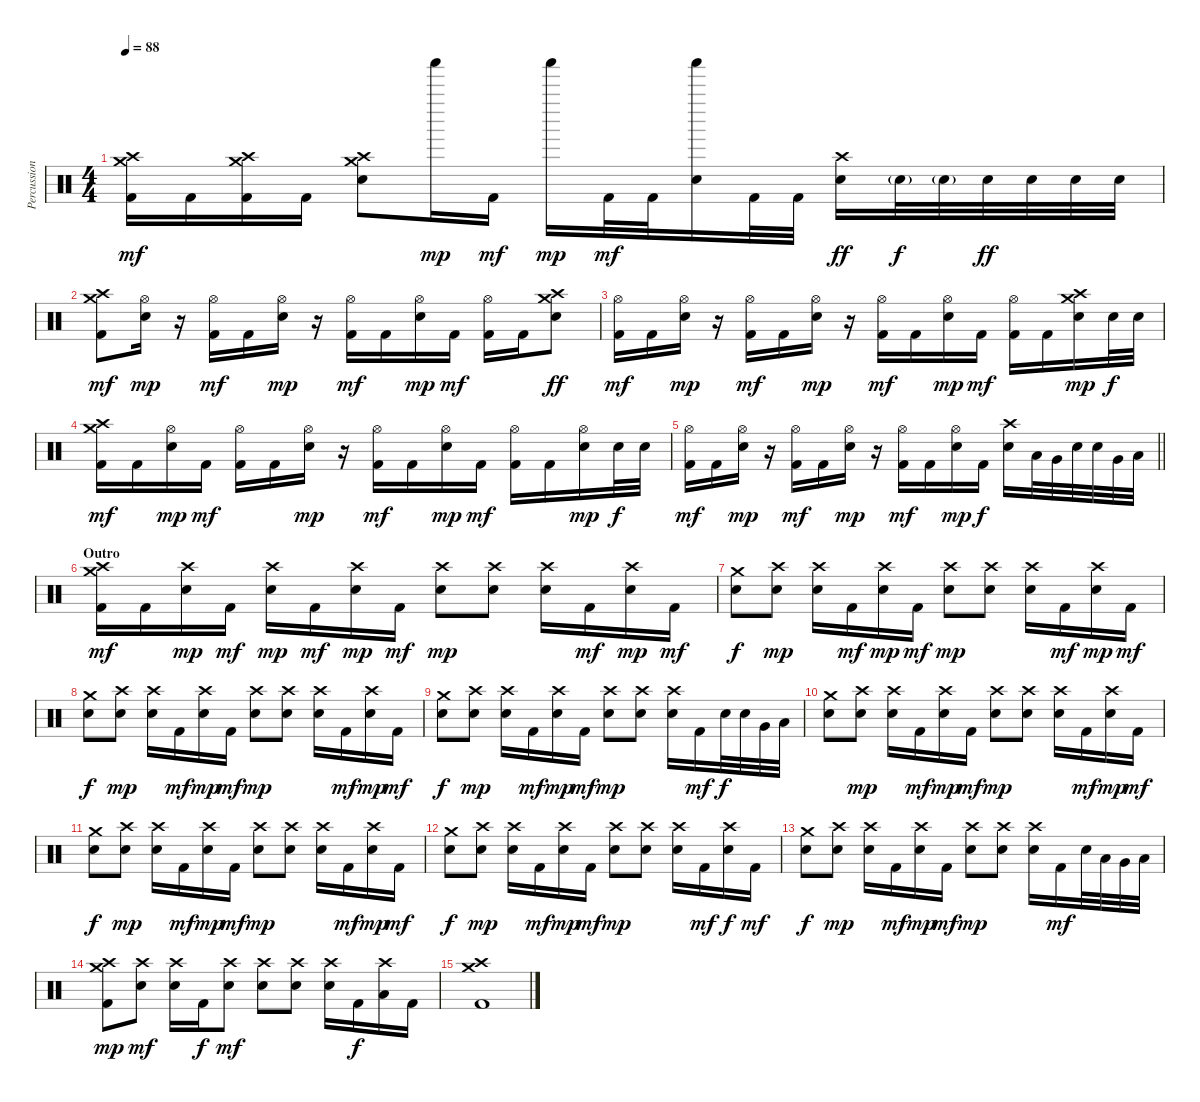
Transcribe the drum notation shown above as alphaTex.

\track ("Percussion" "Percussion") {instrument percussion}
\staff {score}
\articulation defaults
\ts (4 4)
\tempo 88
\clef neutral
\ks c
("Crash high (hit)" "Crash medium (hit)" "Kick (hit) 2").16{dy mf} "Kick (hit) 2".16 ("Crash high (hit)" "Crash medium (hit)" "Kick (hit) 2").16 "Kick (hit) 2".16 ("Crash high (hit)" "Crash medium (hit)" "Electric Snare (hit)").8 "Shaker (hit)".16{dy mp} "Kick (hit) 2".16{dy mf} "Shaker (hit)".16{dy mp} "Kick (hit) 2".32{dy mf} "Kick (hit) 2".32 ("Shaker (hit)" "Electric Snare (hit)").16 "Kick (hit) 2".32 "Kick (hit) 2".32 ("Crash high (hit)" "Electric Snare (hit)").16{dy ff} "Electric Snare (hit)"{g}.32{dy f} "Electric Snare (hit)"{g}.32 "Electric Snare (hit)".32{dy ff} "Electric Snare (hit)".32 "Electric Snare (hit)".32 "Electric Snare (hit)".32 |
("Crash high (hit)" "Crash medium (hit)" "Kick (hit) 2").8{dy mf} ("Hi-Hat (open)" "Electric Snare (hit)").16{dy mp} r.16 ("Hi-Hat (open)" "Kick (hit) 2").16{dy mf} "Kick (hit) 2".16 ("Hi-Hat (open)" "Electric Snare (hit)").16{dy mp} r.16 ("Hi-Hat (open)" "Kick (hit) 2").16{dy mf} "Kick (hit) 2".16 ("Hi-Hat (open)" "Electric Snare (hit)").16{dy mp} "Kick (hit) 2".16{dy mf} ("Hi-Hat (open)" "Kick (hit) 2").16 "Kick (hit) 2".16 ("Crash high (hit)" "Crash medium (hit)" "Electric Snare (hit)").8{dy ff} |
("Hi-Hat (open)" "Kick (hit) 2").16{dy mf} "Kick (hit) 2".16 ("Hi-Hat (open)" "Electric Snare (hit)").16{dy mp} r.16 ("Hi-Hat (open)" "Kick (hit) 2").16{dy mf} "Kick (hit) 2".16 ("Hi-Hat (open)" "Electric Snare (hit)").16{dy mp} r.16 ("Hi-Hat (open)" "Kick (hit) 2").16{dy mf} "Kick (hit) 2".16 ("Hi-Hat (open)" "Electric Snare (hit)").16{dy mp} "Kick (hit) 2".16{dy mf} ("Hi-Hat (open)" "Kick (hit) 2").16 "Kick (hit) 2".16 ("Crash high (hit)" "Crash medium (hit)" "Electric Snare (hit)").16{dy mp} "Electric Snare (hit)".32{dy f} "Electric Snare (hit)".32 |
("Crash high (hit)" "Crash medium (hit)" "Kick (hit) 2").16{dy mf} "Kick (hit) 2".16 ("Hi-Hat (open)" "Electric Snare (hit)").16{dy mp} "Kick (hit) 2".16{dy mf} ("Hi-Hat (open)" "Kick (hit) 2").16 "Kick (hit) 2".16 ("Hi-Hat (open)" "Electric Snare (hit)").16{dy mp} r.16 ("Hi-Hat (open)" "Kick (hit) 2").16{dy mf} "Kick (hit) 2".16 ("Hi-Hat (open)" "Electric Snare (hit)").16{dy mp} "Kick (hit) 2".16{dy mf} ("Hi-Hat (open)" "Kick (hit) 2").16 "Kick (hit) 2".16 ("Hi-Hat (open)" "Electric Snare (hit)").16{dy mp} "Electric Snare (hit)".32{dy f} "Electric Snare (hit)".32 |
\barLineRight lightlight
("Hi-Hat (open)" "Kick (hit) 2").16{dy mf} "Kick (hit) 2".16 ("Hi-Hat (open)" "Electric Snare (hit)").16{dy mp} r.16 ("Hi-Hat (open)" "Kick (hit) 2").16{dy mf} "Kick (hit) 2".16 ("Hi-Hat (open)" "Electric Snare (hit)").16{dy mp} r.16 ("Hi-Hat (open)" "Kick (hit) 2").16{dy mf} "Kick (hit) 2".16 ("Hi-Hat (open)" "Electric Snare (hit)").16{dy mp} "Kick (hit) 2".16{dy f} ("Crash high (hit)" "Electric Snare (hit)").16 "Low Tom (hit)".32 "Very Low Tom (hit)".32 "Electric Snare (hit)".32 "Electric Snare (hit)".32 "Very Low Tom (hit)".32 "Low Floor Tom (hit)".32 |
\section ("" "Outro")
("Crash high (hit)" "Crash medium (hit)" "Kick (hit) 2").16{dy mf} "Kick (hit) 2".16 ("Crash high (hit)" "Electric Snare (hit)").16{dy mp} "Kick (hit) 2".16{dy mf} ("Crash high (hit)" "Electric Snare (hit)").16{dy mp} "Kick (hit) 2".16{dy mf} ("Crash high (hit)" "Electric Snare (hit)").16{dy mp} "Kick (hit) 2".16{dy mf} ("Crash high (hit)" "Electric Snare (hit)").8{dy mp} ("Crash high (hit)" "Electric Snare (hit)").8 ("Crash high (hit)" "Electric Snare (hit)").16 "Kick (hit) 2".16{dy mf} ("Crash high (hit)" "Electric Snare (hit)").16{dy mp} "Kick (hit) 2".16{dy mf} |
("Crash medium (hit)" "Electric Snare (hit)").8{dy f} ("Crash high (hit)" "Electric Snare (hit)").8{dy mp} ("Crash high (hit)" "Electric Snare (hit)").16 "Kick (hit) 2".16{dy mf} ("Crash high (hit)" "Electric Snare (hit)").16{dy mp} "Kick (hit) 2".16{dy mf} ("Crash high (hit)" "Electric Snare (hit)").8{dy mp} ("Crash high (hit)" "Electric Snare (hit)").8 ("Crash high (hit)" "Electric Snare (hit)").16 "Kick (hit) 2".16{dy mf} ("Crash high (hit)" "Electric Snare (hit)").16{dy mp} "Kick (hit) 2".16{dy mf} |
("Crash medium (hit)" "Electric Snare (hit)").8{dy f} ("Crash high (hit)" "Electric Snare (hit)").8{dy mp} ("Crash high (hit)" "Electric Snare (hit)").16 "Kick (hit) 2".16{dy mf} ("Crash high (hit)" "Electric Snare (hit)").16{dy mp} "Kick (hit) 2".16{dy mf} ("Crash high (hit)" "Electric Snare (hit)").8{dy mp} ("Crash high (hit)" "Electric Snare (hit)").8 ("Crash high (hit)" "Electric Snare (hit)").16 "Kick (hit) 2".16{dy mf} ("Crash high (hit)" "Electric Snare (hit)").16{dy mp} "Kick (hit) 2".16{dy mf} |
("Crash medium (hit)" "Electric Snare (hit)").8{dy f} ("Crash high (hit)" "Electric Snare (hit)").8{dy mp} ("Crash high (hit)" "Electric Snare (hit)").16 "Kick (hit) 2".16{dy mf} ("Crash high (hit)" "Electric Snare (hit)").16{dy mp} "Kick (hit) 2".16{dy mf} ("Crash high (hit)" "Electric Snare (hit)").8{dy mp} ("Crash high (hit)" "Electric Snare (hit)").8 ("Crash high (hit)" "Electric Snare (hit)").16 "Kick (hit) 2".16{dy mf} "Electric Snare (hit)".32{dy f} "Electric Snare (hit)".32 "Very Low Tom (hit)".32 "Low Floor Tom (hit)".32 |
("Crash medium (hit)" "Electric Snare (hit)").8 ("Crash high (hit)" "Electric Snare (hit)").8{dy mp} ("Crash high (hit)" "Electric Snare (hit)").16 "Kick (hit) 2".16{dy mf} ("Crash high (hit)" "Electric Snare (hit)").16{dy mp} "Kick (hit) 2".16{dy mf} ("Crash high (hit)" "Electric Snare (hit)").8{dy mp} ("Crash high (hit)" "Electric Snare (hit)").8 ("Crash high (hit)" "Electric Snare (hit)").16 "Kick (hit) 2".16{dy mf} ("Crash high (hit)" "Electric Snare (hit)").16{dy mp} "Kick (hit) 2".16{dy mf} |
("Crash medium (hit)" "Electric Snare (hit)").8{dy f} ("Crash high (hit)" "Electric Snare (hit)").8{dy mp} ("Crash high (hit)" "Electric Snare (hit)").16 "Kick (hit) 2".16{dy mf} ("Crash high (hit)" "Electric Snare (hit)").16{dy mp} "Kick (hit) 2".16{dy mf} ("Crash high (hit)" "Electric Snare (hit)").8{dy mp} ("Crash high (hit)" "Electric Snare (hit)").8 ("Crash high (hit)" "Electric Snare (hit)").16 "Kick (hit) 2".16{dy mf} ("Crash high (hit)" "Electric Snare (hit)").16{dy mp} "Kick (hit) 2".16{dy mf} |
("Crash medium (hit)" "Electric Snare (hit)").8{dy f} ("Crash high (hit)" "Electric Snare (hit)").8{dy mp} ("Crash high (hit)" "Electric Snare (hit)").16 "Kick (hit) 2".16{dy mf} ("Crash high (hit)" "Electric Snare (hit)").16{dy mp} "Kick (hit) 2".16{dy mf} ("Crash high (hit)" "Electric Snare (hit)").8{dy mp} ("Crash high (hit)" "Electric Snare (hit)").8 ("Crash high (hit)" "Electric Snare (hit)").16 "Kick (hit) 2".16{dy mf} ("Crash high (hit)" "Electric Snare (hit)").16{dy f} "Kick (hit) 2".16{dy mf} |
("Crash medium (hit)" "Electric Snare (hit)").8{dy f} ("Crash high (hit)" "Electric Snare (hit)").8{dy mp} ("Crash high (hit)" "Electric Snare (hit)").16 "Kick (hit) 2".16{dy mf} ("Crash high (hit)" "Electric Snare (hit)").16{dy mp} "Kick (hit) 2".16{dy mf} ("Crash high (hit)" "Electric Snare (hit)").8{dy mp} ("Crash high (hit)" "Electric Snare (hit)").8 ("Crash high (hit)" "Electric Snare (hit)").16 "Kick (hit) 2".16{dy mf} "Electric Snare (hit)".32 "Low Tom (hit)".32 "Very Low Tom (hit)".32 "Low Floor Tom (hit)".32 |
("Crash high (hit)" "Crash medium (hit)" "Kick (hit) 2").8{dy mp} ("Crash high (hit)" "Electric Snare (hit)").8{dy mf} ("Crash high (hit)" "Electric Snare (hit)").16 "Kick (hit) 2".16{dy f} ("Crash high (hit)" "Electric Snare (hit)").8{dy mf} ("Crash high (hit)" "Electric Snare (hit)").8 ("Crash high (hit)" "Electric Snare (hit)").8 ("Crash high (hit)" "Electric Snare (hit)").16 "Kick (hit) 2".16{dy f} ("Crash high (hit)" "Low Tom (hit)").16 "Kick (hit) 2".16 |
("Crash high (hit)" "Crash medium (hit)" "Kick (hit) 2").1
